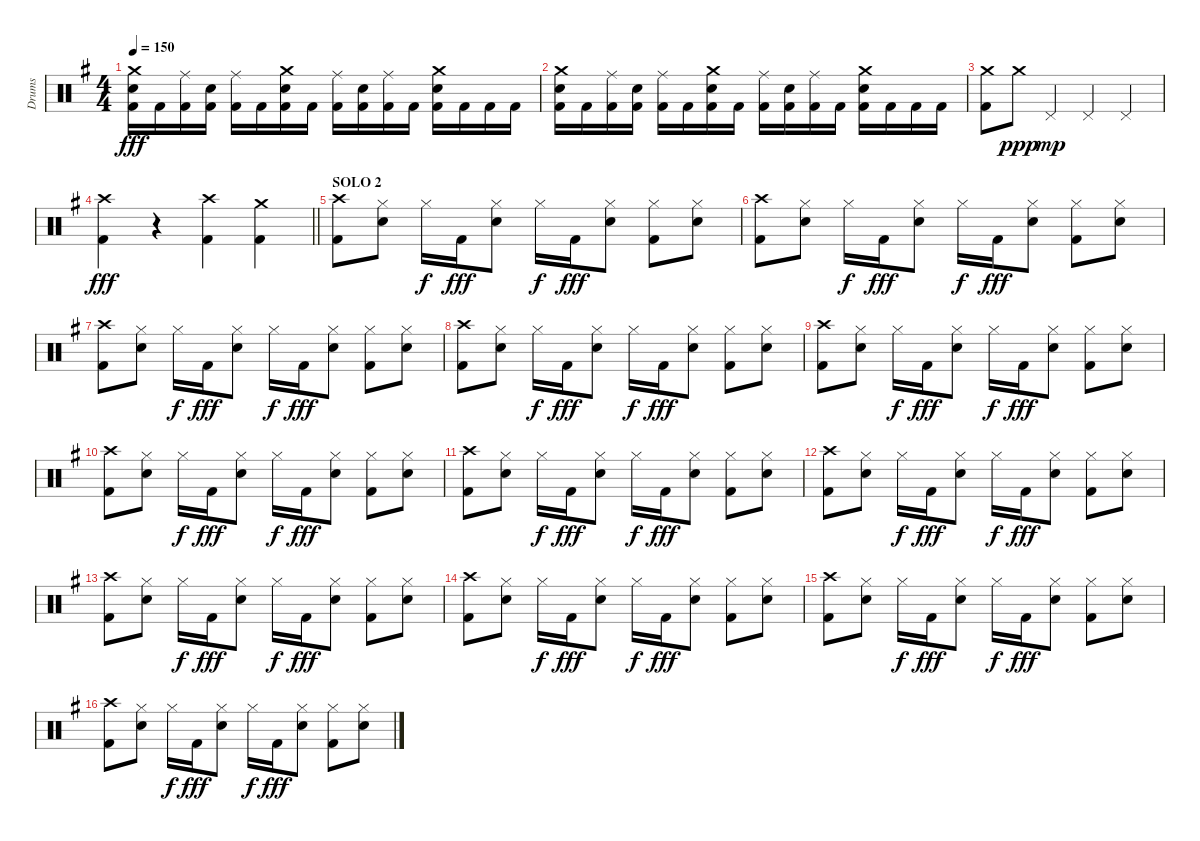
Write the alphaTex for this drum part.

\track ("Drums" "Drums") {instrument percussion}
\staff {score}
\articulation defaults
\ts (4 4)
\tempo 150
\clef neutral
\ks eminor
("Crash medium (hit)" "Snare (hit) 2" "Kick (hit) 2").16{dy fff} "Kick (hit) 2".16 ("Ride (middle)" "Kick (hit) 2").16 ("Snare (hit) 2" "Kick (hit) 2").16 ("Ride (middle)" "Kick (hit) 2").16 "Kick (hit) 2".16 ("Crash medium (hit)" "Snare (hit) 2" "Kick (hit) 2").16 "Kick (hit) 2".16 ("Ride (middle)" "Kick (hit) 2").16 ("Snare (hit) 2" "Kick (hit) 2").16 ("Ride (middle)" "Kick (hit) 2").16 "Kick (hit) 2".16 ("Crash medium (hit)" "Snare (hit) 2" "Kick (hit) 2").16 "Kick (hit) 2".16 "Kick (hit) 2".16 "Kick (hit) 2".16 |
("Crash medium (hit)" "Snare (hit) 2" "Kick (hit) 2").16 "Kick (hit) 2".16 ("Ride (middle)" "Kick (hit) 2").16 ("Snare (hit) 2" "Kick (hit) 2").16 ("Ride (middle)" "Kick (hit) 2").16 "Kick (hit) 2".16 ("Crash medium (hit)" "Snare (hit) 2" "Kick (hit) 2").16 "Kick (hit) 2".16 ("Ride (middle)" "Kick (hit) 2").16 ("Snare (hit) 2" "Kick (hit) 2").16 ("Ride (middle)" "Kick (hit) 2").16 "Kick (hit) 2".16 ("Crash medium (hit)" "Snare (hit) 2" "Kick (hit) 2").16 "Kick (hit) 2".16 "Kick (hit) 2".16 "Kick (hit) 2".16 |
("Crash medium (hit)" "Kick (hit) 2").8 "Crash medium (hit)".8{dy ppp} "Pedal Hi-Hat (hit)".4{dy mp} "Pedal Hi-Hat (hit)".4 "Pedal Hi-Hat (hit)".4 |
\barLineRight lightlight
("Crash high (hit)" "Kick (hit) 2").4{dy fff} r.4 ("Crash high (hit)" "Kick (hit) 2").4 ("Crash medium (hit)" "Kick (hit) 2").4 |
\section ("" "SOLO 2")
("Crash high (hit)" "Kick (hit) 2").8 ("Hi-Hat (closed)" "Snare (hit) 2").8 "Hi-Hat (closed)".16{dy f} "Kick (hit) 2".16{dy fff} ("Hi-Hat (closed)" "Snare (hit) 2").8 "Hi-Hat (closed)".16{dy f} "Kick (hit) 2".16{dy fff} ("Hi-Hat (closed)" "Snare (hit) 2").8 ("Hi-Hat (closed)" "Kick (hit) 2").8 ("Hi-Hat (closed)" "Snare (hit) 2").8 |
("Crash high (hit)" "Kick (hit) 2").8 ("Hi-Hat (closed)" "Snare (hit) 2").8 "Hi-Hat (closed)".16{dy f} "Kick (hit) 2".16{dy fff} ("Hi-Hat (closed)" "Snare (hit) 2").8 "Hi-Hat (closed)".16{dy f} "Kick (hit) 2".16{dy fff} ("Hi-Hat (closed)" "Snare (hit) 2").8 ("Hi-Hat (closed)" "Kick (hit) 2").8 ("Hi-Hat (closed)" "Snare (hit) 2").8 |
("Crash high (hit)" "Kick (hit) 2").8 ("Hi-Hat (closed)" "Snare (hit) 2").8 "Hi-Hat (closed)".16{dy f} "Kick (hit) 2".16{dy fff} ("Hi-Hat (closed)" "Snare (hit) 2").8 "Hi-Hat (closed)".16{dy f} "Kick (hit) 2".16{dy fff} ("Hi-Hat (closed)" "Snare (hit) 2").8 ("Hi-Hat (closed)" "Kick (hit) 2").8 ("Hi-Hat (closed)" "Snare (hit) 2").8 |
("Crash high (hit)" "Kick (hit) 2").8 ("Hi-Hat (closed)" "Snare (hit) 2").8 "Hi-Hat (closed)".16{dy f} "Kick (hit) 2".16{dy fff} ("Hi-Hat (closed)" "Snare (hit) 2").8 "Hi-Hat (closed)".16{dy f} "Kick (hit) 2".16{dy fff} ("Hi-Hat (closed)" "Snare (hit) 2").8 ("Hi-Hat (closed)" "Kick (hit) 2").8 ("Hi-Hat (closed)" "Snare (hit) 2").8 |
("Crash high (hit)" "Kick (hit) 2").8 ("Hi-Hat (closed)" "Snare (hit) 2").8 "Hi-Hat (closed)".16{dy f} "Kick (hit) 2".16{dy fff} ("Hi-Hat (closed)" "Snare (hit) 2").8 "Hi-Hat (closed)".16{dy f} "Kick (hit) 2".16{dy fff} ("Hi-Hat (closed)" "Snare (hit) 2").8 ("Hi-Hat (closed)" "Kick (hit) 2").8 ("Hi-Hat (closed)" "Snare (hit) 2").8 |
("Crash high (hit)" "Kick (hit) 2").8 ("Hi-Hat (closed)" "Snare (hit) 2").8 "Hi-Hat (closed)".16{dy f} "Kick (hit) 2".16{dy fff} ("Hi-Hat (closed)" "Snare (hit) 2").8 "Hi-Hat (closed)".16{dy f} "Kick (hit) 2".16{dy fff} ("Hi-Hat (closed)" "Snare (hit) 2").8 ("Hi-Hat (closed)" "Kick (hit) 2").8 ("Hi-Hat (closed)" "Snare (hit) 2").8 |
("Crash high (hit)" "Kick (hit) 2").8 ("Hi-Hat (closed)" "Snare (hit) 2").8 "Hi-Hat (closed)".16{dy f} "Kick (hit) 2".16{dy fff} ("Hi-Hat (closed)" "Snare (hit) 2").8 "Hi-Hat (closed)".16{dy f} "Kick (hit) 2".16{dy fff} ("Hi-Hat (closed)" "Snare (hit) 2").8 ("Hi-Hat (closed)" "Kick (hit) 2").8 ("Hi-Hat (closed)" "Snare (hit) 2").8 |
("Crash high (hit)" "Kick (hit) 2").8 ("Hi-Hat (closed)" "Snare (hit) 2").8 "Hi-Hat (closed)".16{dy f} "Kick (hit) 2".16{dy fff} ("Hi-Hat (closed)" "Snare (hit) 2").8 "Hi-Hat (closed)".16{dy f} "Kick (hit) 2".16{dy fff} ("Hi-Hat (closed)" "Snare (hit) 2").8 ("Hi-Hat (closed)" "Kick (hit) 2").8 ("Hi-Hat (closed)" "Snare (hit) 2").8 |
("Crash high (hit)" "Kick (hit) 2").8 ("Hi-Hat (closed)" "Snare (hit) 2").8 "Hi-Hat (closed)".16{dy f} "Kick (hit) 2".16{dy fff} ("Hi-Hat (closed)" "Snare (hit) 2").8 "Hi-Hat (closed)".16{dy f} "Kick (hit) 2".16{dy fff} ("Hi-Hat (closed)" "Snare (hit) 2").8 ("Hi-Hat (closed)" "Kick (hit) 2").8 ("Hi-Hat (closed)" "Snare (hit) 2").8 |
("Crash high (hit)" "Kick (hit) 2").8 ("Hi-Hat (closed)" "Snare (hit) 2").8 "Hi-Hat (closed)".16{dy f} "Kick (hit) 2".16{dy fff} ("Hi-Hat (closed)" "Snare (hit) 2").8 "Hi-Hat (closed)".16{dy f} "Kick (hit) 2".16{dy fff} ("Hi-Hat (closed)" "Snare (hit) 2").8 ("Hi-Hat (closed)" "Kick (hit) 2").8 ("Hi-Hat (closed)" "Snare (hit) 2").8 |
("Crash high (hit)" "Kick (hit) 2").8 ("Hi-Hat (closed)" "Snare (hit) 2").8 "Hi-Hat (closed)".16{dy f} "Kick (hit) 2".16{dy fff} ("Hi-Hat (closed)" "Snare (hit) 2").8 "Hi-Hat (closed)".16{dy f} "Kick (hit) 2".16{dy fff} ("Hi-Hat (closed)" "Snare (hit) 2").8 ("Hi-Hat (closed)" "Kick (hit) 2").8 ("Hi-Hat (closed)" "Snare (hit) 2").8 |
("Crash high (hit)" "Kick (hit) 2").8 ("Hi-Hat (closed)" "Snare (hit) 2").8 "Hi-Hat (closed)".16{dy f} "Kick (hit) 2".16{dy fff} ("Hi-Hat (closed)" "Snare (hit) 2").8 "Hi-Hat (closed)".16{dy f} "Kick (hit) 2".16{dy fff} ("Hi-Hat (closed)" "Snare (hit) 2").8 ("Hi-Hat (closed)" "Kick (hit) 2").8 ("Hi-Hat (closed)" "Snare (hit) 2").8
